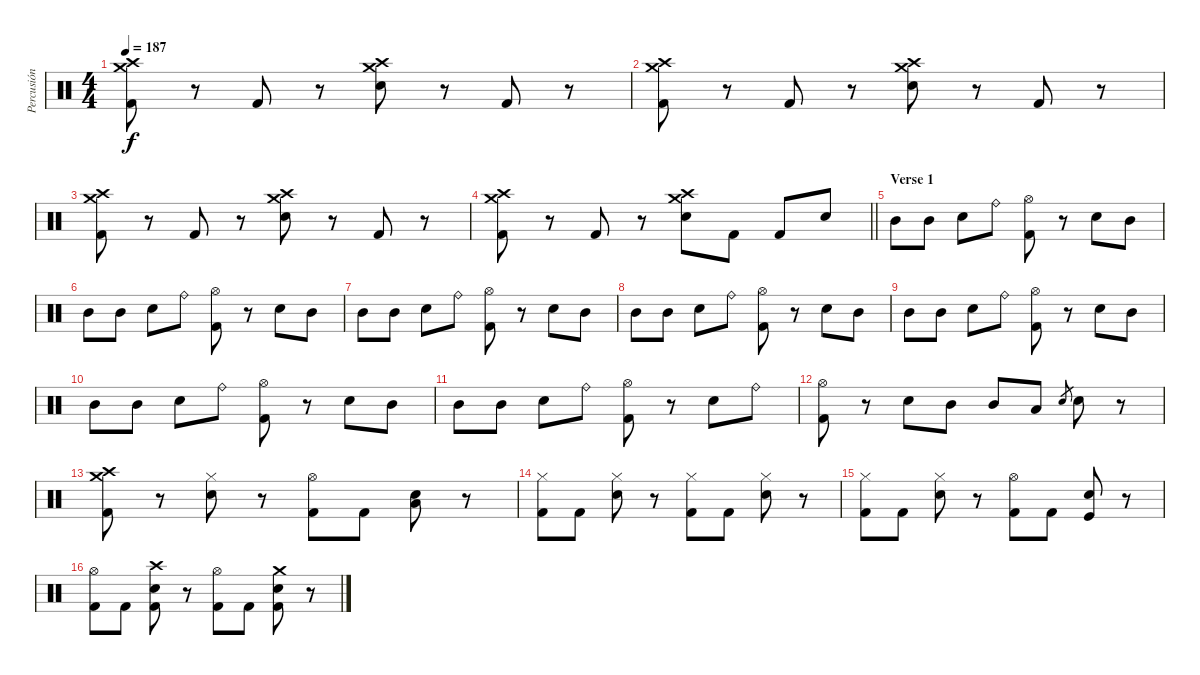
\track ("Percusión" "Percusión") {instrument percussion}
\staff {score}
\articulation defaults
\ts (4 4)
\tempo 187
\clef neutral
\ks c
("Crash high (hit)" "Crash medium (hit)" "Kick (hit) 2").8{dy f} r.8 "Kick (hit) 2".8 r.8 ("Crash high (hit)" "Crash medium (hit)" "Snare (hit) 2").8 r.8 "Kick (hit) 2".8 r.8 |
("Crash high (hit)" "Crash medium (hit)" "Kick (hit) 2").8 r.8 "Kick (hit) 2".8 r.8 ("Crash high (hit)" "Crash medium (hit)" "Snare (hit) 2").8 r.8 "Kick (hit) 2".8 r.8 |
("Crash high (hit)" "Crash medium (hit)" "Kick (hit) 2").8 r.8 "Kick (hit) 2".8 r.8 ("Crash high (hit)" "Crash medium (hit)" "Snare (hit) 2").8 r.8 "Kick (hit) 2".8 r.8 |
\barLineRight lightlight
("Crash high (hit)" "Crash medium (hit)" "Kick (hit) 2").8 r.8 "Kick (hit) 2".8 r.8 ("Crash high (hit)" "Crash medium (hit)" "Snare (hit) 2").8 "Kick (hit) 2".8 "Kick (hit) 2".8 "Snare (hit) 2".8 |
\section ("" "Verse 1")
"Mid Tom (hit)".8 "Mid Tom (hit)".8 "Snare (hit) 2".8 "Ride (bell)".8 ("Hi-Hat (open)" "Kick (hit) 2").8 r.8 "Snare (hit) 2".8 "Mid Tom (hit)".8 |
"Mid Tom (hit)".8 "Mid Tom (hit)".8 "Snare (hit) 2".8 "Ride (bell)".8 ("Hi-Hat (open)" "Kick (hit) 2").8 r.8 "Snare (hit) 2".8 "Mid Tom (hit)".8 |
"Mid Tom (hit)".8 "Mid Tom (hit)".8 "Snare (hit) 2".8 "Ride (bell)".8 ("Hi-Hat (open)" "Kick (hit) 2").8 r.8 "Snare (hit) 2".8 "Mid Tom (hit)".8 |
"Mid Tom (hit)".8 "Mid Tom (hit)".8 "Snare (hit) 2".8 "Ride (bell)".8 ("Hi-Hat (open)" "Kick (hit) 2").8 r.8 "Snare (hit) 2".8 "Mid Tom (hit)".8 |
"Mid Tom (hit)".8 "Mid Tom (hit)".8 "Snare (hit) 2".8 "Ride (bell)".8 ("Hi-Hat (open)" "Kick (hit) 2").8 r.8 "Snare (hit) 2".8 "Mid Tom (hit)".8 |
"Mid Tom (hit)".8 "Mid Tom (hit)".8 "Snare (hit) 2".8 "Ride (bell)".8 ("Hi-Hat (open)" "Kick (hit) 2").8 r.8 "Snare (hit) 2".8 "Mid Tom (hit)".8 |
"Mid Tom (hit)".8 "Mid Tom (hit)".8 "Snare (hit) 2".8 "Ride (bell)".8 ("Hi-Hat (open)" "Kick (hit) 2").8 r.8 "Snare (hit) 2".8 "Ride (bell)".8 |
("Hi-Hat (open)" "Kick (hit) 2").8 r.8 "Snare (hit) 2".8 "Mid Tom (hit)".8 "Mid Tom (hit)".8 "Low Tom (hit)".8 "Snare (hit) 2".8{gr} "Snare (hit) 2".8 r.8 |
("Crash high (hit)" "Crash medium (hit)" "Kick (hit) 2").8 r.8 ("Hi-Hat (closed)" "Snare (hit) 2").8 r.8 ("Hi-Hat (open)" "Kick (hit) 2").8 "Kick (hit) 2".8 ("Snare (hit) 2" "Low Tom (hit)").8 r.8 |
("Hi-Hat (closed)" "Kick (hit) 2").8 "Kick (hit) 2".8 ("Hi-Hat (closed)" "Snare (hit) 2").8 r.8 ("Hi-Hat (closed)" "Kick (hit) 2").8 "Kick (hit) 2".8 ("Hi-Hat (closed)" "Snare (hit) 2").8 r.8 |
("Hi-Hat (closed)" "Kick (hit) 2").8 "Kick (hit) 2".8 ("Hi-Hat (closed)" "Snare (hit) 2").8 r.8 ("Hi-Hat (open)" "Kick (hit) 2").8 "Kick (hit) 2".8 ("Snare (hit) 2" "Kick (hit)").8 r.8 |
("Hi-Hat (open)" "Kick (hit) 2").8 "Kick (hit) 2".8 ("Crash high (hit)" "Snare (hit) 2" "Kick (hit) 2").8 r.8 ("Hi-Hat (open)" "Kick (hit) 2").8 "Kick (hit) 2".8 ("Crash medium (hit)" "Snare (hit) 2" "Kick (hit) 2").8 r.8
